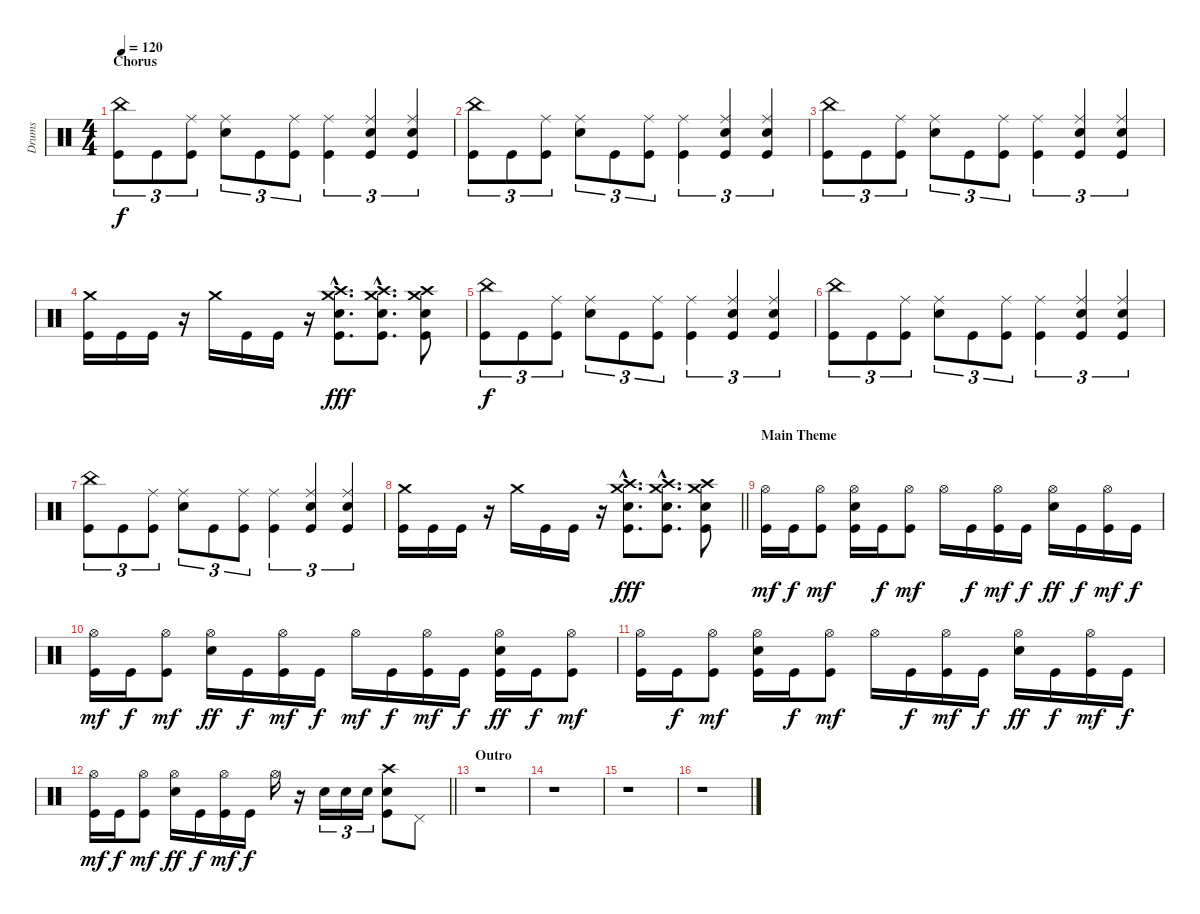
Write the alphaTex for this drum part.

\track ("Drums" "Drums") {instrument percussion}
\staff {score}
\articulation defaults
\ts (4 4)
\section ("" "Chorus")
\tempo 120
\clef neutral
\ks c
("China (hit)" "Kick (hit)").8{tu (3 2) dy f} "Kick (hit)".8{tu (3 2)} ("Ride (middle)" "Kick (hit)").8{tu (3 2)} ("Ride (middle)" "Electric Snare (hit)").8{tu (3 2)} "Kick (hit)".8{tu (3 2)} ("Ride (middle)" "Kick (hit)").8{tu (3 2)} ("Ride (middle)" "Kick (hit)").4{tu (3 2)} ("Ride (middle)" "Electric Snare (hit)" "Kick (hit)").4{tu (3 2)} ("Ride (middle)" "Electric Snare (hit)" "Kick (hit)").4{tu (3 2)} |
("China (hit)" "Kick (hit)").8{tu (3 2)} "Kick (hit)".8{tu (3 2)} ("Ride (middle)" "Kick (hit)").8{tu (3 2)} ("Ride (middle)" "Electric Snare (hit)").8{tu (3 2)} "Kick (hit)".8{tu (3 2)} ("Ride (middle)" "Kick (hit)").8{tu (3 2)} ("Ride (middle)" "Kick (hit)").4{tu (3 2)} ("Ride (middle)" "Electric Snare (hit)" "Kick (hit)").4{tu (3 2)} ("Ride (middle)" "Electric Snare (hit)" "Kick (hit)").4{tu (3 2)} |
("China (hit)" "Kick (hit)").8{tu (3 2)} "Kick (hit)".8{tu (3 2)} ("Ride (middle)" "Kick (hit)").8{tu (3 2)} ("Ride (middle)" "Electric Snare (hit)").8{tu (3 2)} "Kick (hit)".8{tu (3 2)} ("Ride (middle)" "Kick (hit)").8{tu (3 2)} ("Ride (middle)" "Kick (hit)").4{tu (3 2)} ("Ride (middle)" "Electric Snare (hit)" "Kick (hit)").4{tu (3 2)} ("Ride (middle)" "Electric Snare (hit)" "Kick (hit)").4{tu (3 2)} |
("Crash medium (hit)" "Kick (hit)").16 "Kick (hit)".16 "Kick (hit)".16 r.16 "Crash medium (hit)".16 "Kick (hit)".16 "Kick (hit)".16 r.16 ("Crash high (hit)"{hac} "Crash medium (hit)"{hac} "Electric Snare (hit)"{hac} "Kick (hit)"{hac}).8{d dy fff} ("Crash high (hit)"{hac} "Crash medium (hit)"{hac} "Electric Snare (hit)"{hac} "Kick (hit)"{hac}).8{d} ("Crash high (hit)" "Crash medium (hit)" "Electric Snare (hit)" "Kick (hit)").8 |
("China (hit)" "Kick (hit)").8{tu (3 2) dy f} "Kick (hit)".8{tu (3 2)} ("Ride (middle)" "Kick (hit)").8{tu (3 2)} ("Ride (middle)" "Electric Snare (hit)").8{tu (3 2)} "Kick (hit)".8{tu (3 2)} ("Ride (middle)" "Kick (hit)").8{tu (3 2)} ("Ride (middle)" "Kick (hit)").4{tu (3 2)} ("Ride (middle)" "Electric Snare (hit)" "Kick (hit)").4{tu (3 2)} ("Ride (middle)" "Electric Snare (hit)" "Kick (hit)").4{tu (3 2)} |
("China (hit)" "Kick (hit)").8{tu (3 2)} "Kick (hit)".8{tu (3 2)} ("Ride (middle)" "Kick (hit)").8{tu (3 2)} ("Ride (middle)" "Electric Snare (hit)").8{tu (3 2)} "Kick (hit)".8{tu (3 2)} ("Ride (middle)" "Kick (hit)").8{tu (3 2)} ("Ride (middle)" "Kick (hit)").4{tu (3 2)} ("Ride (middle)" "Electric Snare (hit)" "Kick (hit)").4{tu (3 2)} ("Ride (middle)" "Electric Snare (hit)" "Kick (hit)").4{tu (3 2)} |
("China (hit)" "Kick (hit)").8{tu (3 2)} "Kick (hit)".8{tu (3 2)} ("Ride (middle)" "Kick (hit)").8{tu (3 2)} ("Ride (middle)" "Electric Snare (hit)").8{tu (3 2)} "Kick (hit)".8{tu (3 2)} ("Ride (middle)" "Kick (hit)").8{tu (3 2)} ("Ride (middle)" "Kick (hit)").4{tu (3 2)} ("Ride (middle)" "Electric Snare (hit)" "Kick (hit)").4{tu (3 2)} ("Ride (middle)" "Electric Snare (hit)" "Kick (hit)").4{tu (3 2)} |
\barLineRight lightlight
("Crash medium (hit)" "Kick (hit)").16 "Kick (hit)".16 "Kick (hit)".16 r.16 "Crash medium (hit)".16 "Kick (hit)".16 "Kick (hit)".16 r.16 ("Crash high (hit)"{hac} "Crash medium (hit)"{hac} "Electric Snare (hit)"{hac} "Kick (hit)"{hac}).8{d dy fff} ("Crash high (hit)"{hac} "Crash medium (hit)"{hac} "Electric Snare (hit)"{hac} "Kick (hit)"{hac}).8{d} ("Crash high (hit)" "Crash medium (hit)" "Electric Snare (hit)" "Kick (hit)").8 |
\section ("" "Main Theme")
("Hi-Hat (open)" "Kick (hit)").16{dy mf} "Kick (hit)".16{dy f} ("Hi-Hat (open)" "Kick (hit)").8{dy mf} ("Hi-Hat (open)" "Electric Snare (hit)" "Kick (hit)").16 "Kick (hit)".16{dy f} ("Hi-Hat (open)" "Kick (hit)").8{dy mf} "Hi-Hat (open)".16 "Kick (hit)".16{dy f} ("Hi-Hat (open)" "Kick (hit)").16{dy mf} "Kick (hit)".16{dy f} ("Hi-Hat (open)" "Electric Snare (hit)").16{dy ff} "Kick (hit)".16{dy f} ("Hi-Hat (open)" "Kick (hit)").16{dy mf} "Kick (hit)".16{dy f} |
("Hi-Hat (open)" "Kick (hit)").16{dy mf} "Kick (hit)".16{dy f} ("Hi-Hat (open)" "Kick (hit)").8{dy mf} ("Hi-Hat (open)" "Electric Snare (hit)").16{dy ff} "Kick (hit)".16{dy f} ("Hi-Hat (open)" "Kick (hit)").16{dy mf} "Kick (hit)".16{dy f} "Hi-Hat (open)".16{dy mf} "Kick (hit)".16{dy f} ("Hi-Hat (open)" "Kick (hit)").16{dy mf} "Kick (hit)".16{dy f} ("Hi-Hat (open)" "Electric Snare (hit)" "Kick (hit)").16{dy ff} "Kick (hit)".16{dy f} ("Hi-Hat (open)" "Kick (hit)").8{dy mf} |
("Hi-Hat (open)" "Kick (hit)").16 "Kick (hit)".16{dy f} ("Hi-Hat (open)" "Kick (hit)").8{dy mf} ("Hi-Hat (open)" "Electric Snare (hit)" "Kick (hit)").16 "Kick (hit)".16{dy f} ("Hi-Hat (open)" "Kick (hit)").8{dy mf} "Hi-Hat (open)".16 "Kick (hit)".16{dy f} ("Hi-Hat (open)" "Kick (hit)").16{dy mf} "Kick (hit)".16{dy f} ("Hi-Hat (open)" "Electric Snare (hit)").16{dy ff} "Kick (hit)".16{dy f} ("Hi-Hat (open)" "Kick (hit)").16{dy mf} "Kick (hit)".16{dy f} |
\barLineRight lightlight
("Hi-Hat (open)" "Kick (hit)").16{dy mf} "Kick (hit)".16{dy f} ("Hi-Hat (open)" "Kick (hit)").8{dy mf} ("Hi-Hat (open)" "Electric Snare (hit)").16{dy ff} "Kick (hit)".16{dy f} ("Hi-Hat (open)" "Kick (hit)").16{dy mf} "Kick (hit)".16{dy f} "Hi-Hat (open)".16 r.16 "Electric Snare (hit)".16{tu (3 2)} "Electric Snare (hit)".16{tu (3 2)} "Electric Snare (hit)".16{tu (3 2)} ("Crash high (hit)" "Electric Snare (hit)" "Kick (hit)").8 "Pedal Hi-Hat (hit)".8 |
\section ("" "Outro")
r.1 |
r.1 |
r.1 |
r.1
